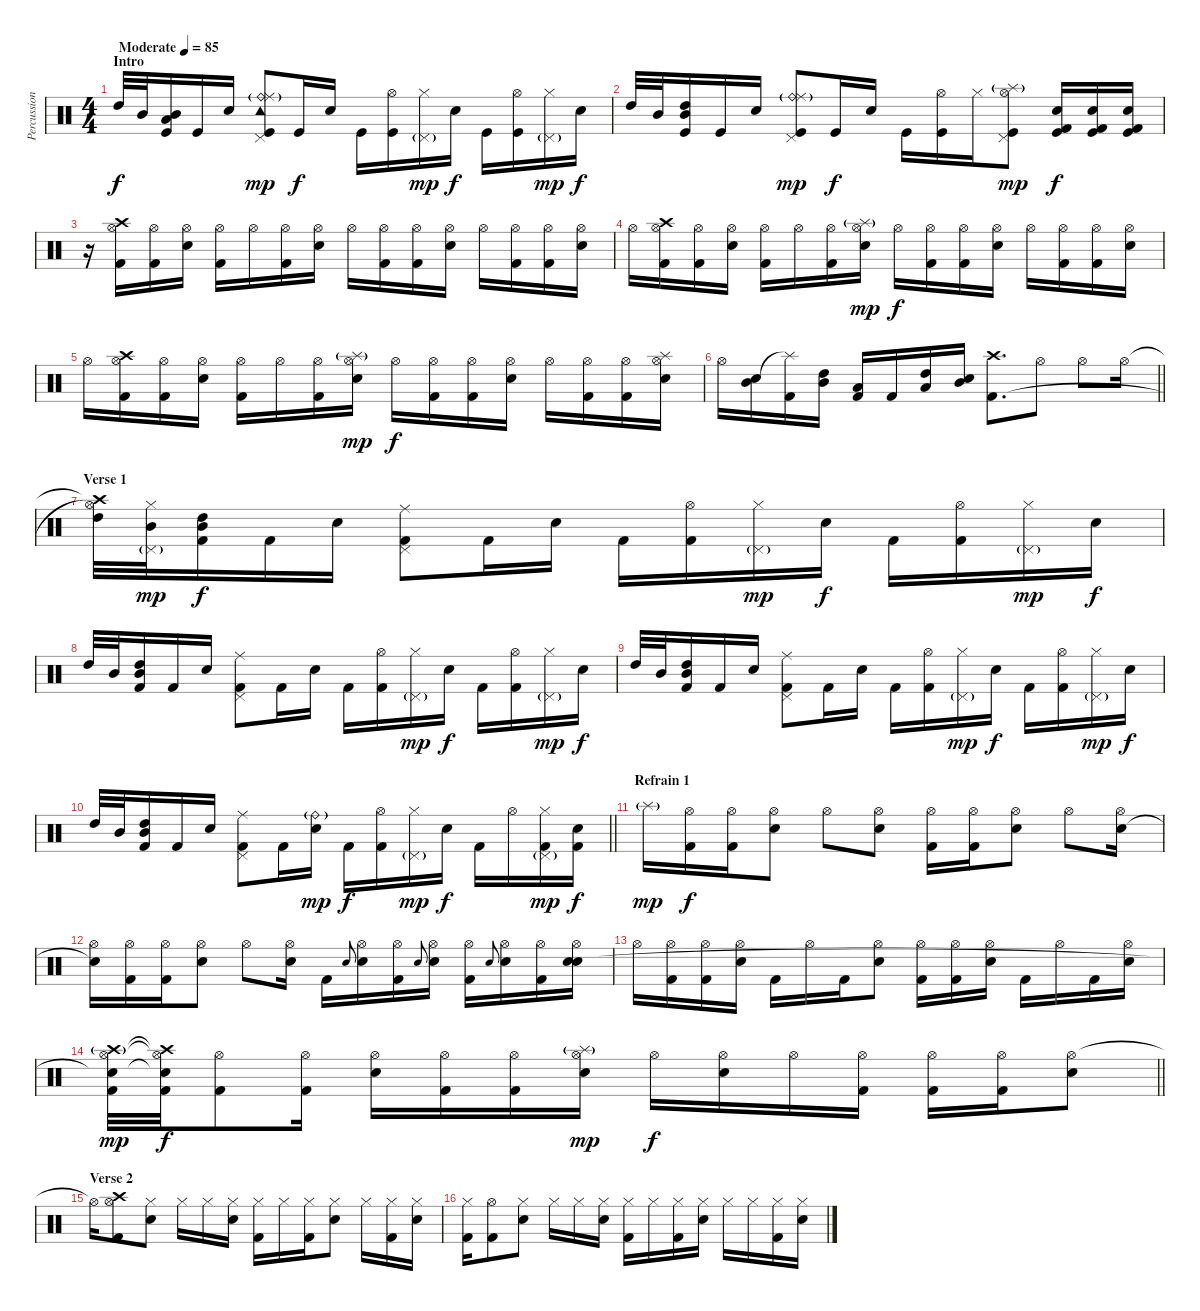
\track ("Percussion" "Percussion") {instrument percussion}
\staff {score}
\articulation defaults
\ts (4 4)
\section ("" "Intro")
\tempo (85 "Moderate")
\clef neutral
\ks c "High Tom (hit)".32{dy f} "Mid Tom (hit)".32
("Kick (hit)" "Mid Tom (hit)" "Low Tom (hit)").16 "Kick (hit)".16 "Snare (hit) 2".16 ("Kick (hit)" "Tambourine (hit)" "Ride (bell)"{g} "Ride (middle)" "Pedal Hi-Hat (hit)").8{dy mp} "Kick (hit)".16{dy f} "Snare (hit) 2".16 "Kick (hit)".16 ("Kick (hit)" "Hi-Hat (open)").16 ("Hi-Hat (closed)" "Pedal Hi-Hat (hit)"{g}).16{dy mp} "Snare (hit) 2".16{dy f} "Kick (hit)".16 ("Kick (hit)" "Hi-Hat (open)").16 ("Hi-Hat (closed)" "Pedal Hi-Hat (hit)"{g}).16{dy mp} "Snare (hit) 2".16{dy f} |
"High Tom (hit)".32 "Mid Tom (hit)".32 ("Kick (hit)" "Mid Tom (hit)" "High Tom (hit)").16 "Kick (hit)".16 "Snare (hit) 2".16 ("Kick (hit)" "Ride (bell)"{g} "Ride (middle)" "Pedal Hi-Hat (hit)").8{dy mp} "Kick (hit)".16{dy f} "Snare (hit) 2".16 "Kick (hit)".16 ("Kick (hit)" "Hi-Hat (open)").16 "Hi-Hat (closed)".16 ("Kick (hit)" "Splash (hit)"{g} "Hi-Hat (open)" "Pedal Hi-Hat (hit)").8{dy mp} ("Kick (hit)" "Snare (hit) 2" "Kick (hit) 2").16{dy f} ("Kick (hit)" "Snare (hit) 2" "Kick (hit) 2").16 ("Kick (hit)" "Snare (hit) 2" "Kick (hit) 2").16 |
r.16 ("Crash high (hit)" "Hi-Hat (open)" "Kick (hit) 2").16 ("Hi-Hat (open)" "Kick (hit) 2").16 ("Hi-Hat (open)" "Snare (hit) 2").16 ("Hi-Hat (open)" "Kick (hit) 2").16 "Hi-Hat (open)".16 ("Hi-Hat (open)" "Kick (hit) 2").16 ("Hi-Hat (open)" "Snare (hit) 2").16 "Hi-Hat (open)".16 ("Hi-Hat (open)" "Kick (hit) 2").16 ("Hi-Hat (open)" "Kick (hit) 2").16 ("Hi-Hat (open)" "Snare (hit) 2").16 "Hi-Hat (open)".16 ("Hi-Hat (open)" "Kick (hit) 2").16 ("Hi-Hat (open)" "Kick (hit) 2").16 ("Hi-Hat (open)" "Snare (hit) 2").16 |
"Hi-Hat (open)".16 ("Crash high (hit)" "Hi-Hat (open)" "Kick (hit) 2").16 ("Hi-Hat (open)" "Kick (hit) 2").16 ("Hi-Hat (open)" "Snare (hit) 2").16 ("Hi-Hat (open)" "Kick (hit) 2").16 "Hi-Hat (open)".16 ("Hi-Hat (open)" "Kick (hit) 2").16 ("Splash (hit)"{g} "Hi-Hat (open)" "Snare (hit) 2").16{dy mp} "Hi-Hat (open)".16{dy f} ("Hi-Hat (open)" "Kick (hit) 2").16 ("Hi-Hat (open)" "Kick (hit) 2").16 ("Hi-Hat (open)" "Snare (hit) 2").16 "Hi-Hat (open)".16 ("Hi-Hat (open)" "Kick (hit) 2").16 ("Hi-Hat (open)" "Kick (hit) 2").16 ("Hi-Hat (open)" "Snare (hit) 2").16 |
"Hi-Hat (open)".16 ("Crash high (hit)" "Hi-Hat (open)" "Kick (hit) 2").16 ("Hi-Hat (open)" "Kick (hit) 2").16 ("Hi-Hat (open)" "Snare (hit) 2").16 ("Hi-Hat (open)" "Kick (hit) 2").16 "Hi-Hat (open)".16 ("Hi-Hat (open)" "Kick (hit) 2").16 ("Splash (hit)"{g} "Hi-Hat (open)" "Snare (hit) 2").16{dy mp} "Hi-Hat (open)".16{dy f} ("Hi-Hat (open)" "Kick (hit) 2").16 ("Hi-Hat (open)" "Kick (hit) 2").16 ("Hi-Hat (open)" "Snare (hit) 2").16 "Hi-Hat (open)".16 ("Hi-Hat (open)" "Kick (hit) 2").16 ("Hi-Hat (open)" "Kick (hit) 2").16 ("Splash (hit)" "Hi-Hat (open)" "Snare (hit) 2").16 |
\barLineRight lightlight "Hi-Hat (open)".16
("Mid Tom (hit)" "Snare (hit) 2").16 ("Splash (hit)"{t} "Kick (hit) 2").16 ("High Tom (hit)" "Mid Tom (hit)").16 ("Low Tom (hit)" "Kick (hit) 2").16 "Kick (hit) 2".16 ("High Tom (hit)" "Low Tom (hit)").16 ("Mid Tom (hit)" "Snare (hit) 2").16 ("Crash high (hit)" "Kick (hit) 2").8{d} "Hi-Hat (open)".8 "Hi-Hat (open)".8 "Hi-Hat (open)".16 |
\section ("" "Verse 1")
("Crash high (hit)"{t} "Hi-Hat (open)"{t} "High Tom (hit)").32 ("Hi-Hat (closed)" "Pedal Hi-Hat (hit)"{g} "Mid Tom (hit)").32{dy mp} ("Mid Tom (hit)" "High Tom (hit)" "Kick (hit) 2").16{dy f} "Kick (hit) 2".16 "Snare (hit) 2".16 ("Ride (middle)" "Pedal Hi-Hat (hit)" "Kick (hit) 2").8 "Kick (hit) 2".16 "Snare (hit) 2".16 "Kick (hit) 2".16 ("Hi-Hat (open)" "Kick (hit) 2").16 ("Hi-Hat (closed)" "Pedal Hi-Hat (hit)"{g}).16{dy mp} "Snare (hit) 2".16{dy f} "Kick (hit) 2".16 ("Hi-Hat (open)" "Kick (hit) 2").16 ("Hi-Hat (closed)" "Pedal Hi-Hat (hit)"{g}).16{dy mp} "Snare (hit) 2".16{dy f} |
"High Tom (hit)".32 "Mid Tom (hit)".32 ("Mid Tom (hit)" "High Tom (hit)" "Kick (hit) 2").16 "Kick (hit) 2".16 "Snare (hit) 2".16 ("Ride (middle)" "Pedal Hi-Hat (hit)" "Kick (hit) 2").8 "Kick (hit) 2".16 "Snare (hit) 2".16 "Kick (hit) 2".16 ("Hi-Hat (open)" "Kick (hit) 2").16 ("Hi-Hat (closed)" "Pedal Hi-Hat (hit)"{g}).16{dy mp} "Snare (hit) 2".16{dy f} "Kick (hit) 2".16 ("Hi-Hat (open)" "Kick (hit) 2").16 ("Hi-Hat (closed)" "Pedal Hi-Hat (hit)"{g}).16{dy mp} "Snare (hit) 2".16{dy f} |
"High Tom (hit)".32 "Mid Tom (hit)".32 ("Mid Tom (hit)" "High Tom (hit)" "Kick (hit) 2").16 "Kick (hit) 2".16 "Snare (hit) 2".16 ("Ride (middle)" "Pedal Hi-Hat (hit)" "Kick (hit) 2").8 "Kick (hit) 2".16 "Snare (hit) 2".16 "Kick (hit) 2".16 ("Hi-Hat (open)" "Kick (hit) 2").16 ("Hi-Hat (closed)" "Pedal Hi-Hat (hit)"{g}).16{dy mp} "Snare (hit) 2".16{dy f} "Kick (hit) 2".16 ("Hi-Hat (open)" "Kick (hit) 2").16 ("Hi-Hat (closed)" "Pedal Hi-Hat (hit)"{g}).16{dy mp} "Snare (hit) 2".16{dy f} |
\barLineRight lightlight "High Tom (hit)".32 "Mid Tom (hit)".32
("Mid Tom (hit)" "High Tom (hit)" "Kick (hit) 2").16 "Kick (hit) 2".16 "Snare (hit) 2".16 ("Ride (middle)" "Pedal Hi-Hat (hit)" "Kick (hit) 2").8 "Kick (hit) 2".16 ("Ride (bell)"{g} "Snare (hit) 2").16{dy mp} "Kick (hit) 2".16{dy f} ("Hi-Hat (open)" "Kick (hit) 2").16 ("Hi-Hat (closed)" "Pedal Hi-Hat (hit)"{g}).16{dy mp} "Snare (hit) 2".16{dy f} "Kick (hit) 2".16 "Hi-Hat (open)".16 ("Hi-Hat (closed)" "Pedal Hi-Hat (hit)"{g} "Kick (hit) 2").16{dy mp} ("Snare (hit) 2" "Kick (hit) 2").16{dy f} |
\section ("" "Refrain 1")
"Splash (hit)"{g}.16{dy mp} ("Hi-Hat (open)" "Kick (hit) 2").16{dy f} ("Hi-Hat (open)" "Kick (hit) 2").16 ("Hi-Hat (open)" "Snare (hit) 2").8 "Hi-Hat (open)".8 ("Hi-Hat (open)" "Snare (hit) 2").8 ("Hi-Hat (open)" "Kick (hit) 2").16 ("Hi-Hat (open)" "Kick (hit) 2").16 ("Hi-Hat (open)" "Snare (hit) 2").8 "Hi-Hat (open)".8 ("Hi-Hat (open)" "Snare (hit) 2").16 |
("Hi-Hat (open)" "Snare (hit) 2"{t}).16 ("Hi-Hat (open)" "Kick (hit) 2").16 ("Hi-Hat (open)" "Kick (hit) 2").16 ("Hi-Hat (open)" "Snare (hit) 2").8 "Hi-Hat (open)".8 ("Hi-Hat (open)" "Snare (hit) 2").16 "Kick (hit) 2".16 "Snare (hit) 2"{h}.8{gr onbeat} ("Hi-Hat (open)" "Snare (hit) 2").16 ("Hi-Hat (open)" "Kick (hit) 2").16 "Snare (hit) 2".8{gr onbeat} ("Hi-Hat (open)" "Snare (hit) 2").16 ("Hi-Hat (open)" "Kick (hit) 2").16 "Snare (hit) 2".8{gr onbeat} ("Hi-Hat (open)" "Snare (hit) 2").16 ("Hi-Hat (open)" "Kick (hit) 2").16 ("Hi-Hat (open)" "Electric Snare (hit)" "Snare (hit) 2").16 |
"Hi-Hat (open)".16 ("Hi-Hat (open)" "Kick (hit) 2").16 ("Hi-Hat (open)" "Kick (hit) 2").16 ("Hi-Hat (open)" "Snare (hit) 2").16 "Kick (hit) 2".16 "Hi-Hat (open)".16 "Kick (hit) 2".16 ("Hi-Hat (open)" "Snare (hit) 2").8 ("Hi-Hat (open)" "Kick (hit) 2").16 ("Hi-Hat (open)" "Kick (hit) 2").16 ("Hi-Hat (open)" "Snare (hit) 2").16 "Kick (hit) 2".16 "Hi-Hat (open)".16 "Kick (hit) 2".16 ("Hi-Hat (open)" "Snare (hit) 2").16 |
\barLineRight lightlight
("Crash high (hit)"{g} "Hi-Hat (open)" "Snare (hit) 2"{t} "Kick (hit) 2").32{dy mp} ("Crash high (hit)"{t} "Hi-Hat (open)"{t} "Snare (hit) 2"{t} "Kick (hit) 2").32{dy f} ("Hi-Hat (open)" "Kick (hit) 2").8 ("Hi-Hat (open)" "Kick (hit) 2").16 ("Hi-Hat (open)" "Snare (hit) 2").16 ("Hi-Hat (open)" "Kick (hit) 2").16 ("Hi-Hat (open)" "Kick (hit) 2").16 ("Splash (hit)"{g} "Hi-Hat (open)" "Snare (hit) 2").16{dy mp} "Hi-Hat (open)".16{dy f} ("Hi-Hat (open)" "Snare (hit) 2").16 "Hi-Hat (open)".16 ("Hi-Hat (open)" "Kick (hit) 2").16 ("Hi-Hat (open)" "Kick (hit) 2").16 ("Hi-Hat (open)" "Kick (hit) 2").16 ("Hi-Hat (open)" "Snare (hit) 2").8 |
\section ("" "Verse 2")
"Hi-Hat (open)"{t}.16 ("Crash high (hit)" "Hi-Hat (open)" "Kick (hit) 2").8 ("Hi-Hat (closed)" "Snare (hit) 2").8 "Hi-Hat (closed)".16 "Hi-Hat (closed)".16 ("Hi-Hat (closed)" "Snare (hit) 2").16 ("Hi-Hat (closed)" "Kick (hit) 2").16 "Hi-Hat (closed)".16 ("Hi-Hat (closed)" "Kick (hit) 2").16 ("Hi-Hat (closed)" "Snare (hit) 2").8 "Hi-Hat (closed)".16 ("Hi-Hat (closed)" "Kick (hit) 2").16 ("Hi-Hat (closed)" "Snare (hit) 2").16 |
("Hi-Hat (closed)" "Kick (hit) 2").16 ("Hi-Hat (open)" "Kick (hit) 2").8 ("Hi-Hat (closed)" "Snare (hit) 2").8 "Hi-Hat (closed)".16 "Hi-Hat (closed)".16 ("Hi-Hat (closed)" "Snare (hit) 2").16 ("Hi-Hat (closed)" "Kick (hit) 2").16 "Hi-Hat (closed)".16 ("Hi-Hat (closed)" "Kick (hit) 2").16 ("Hi-Hat (closed)" "Snare (hit) 2").16 "Hi-Hat (closed)".16 "Hi-Hat (closed)".16 ("Hi-Hat (closed)" "Kick (hit) 2").16 ("Hi-Hat (closed)" "Snare (hit) 2").16
